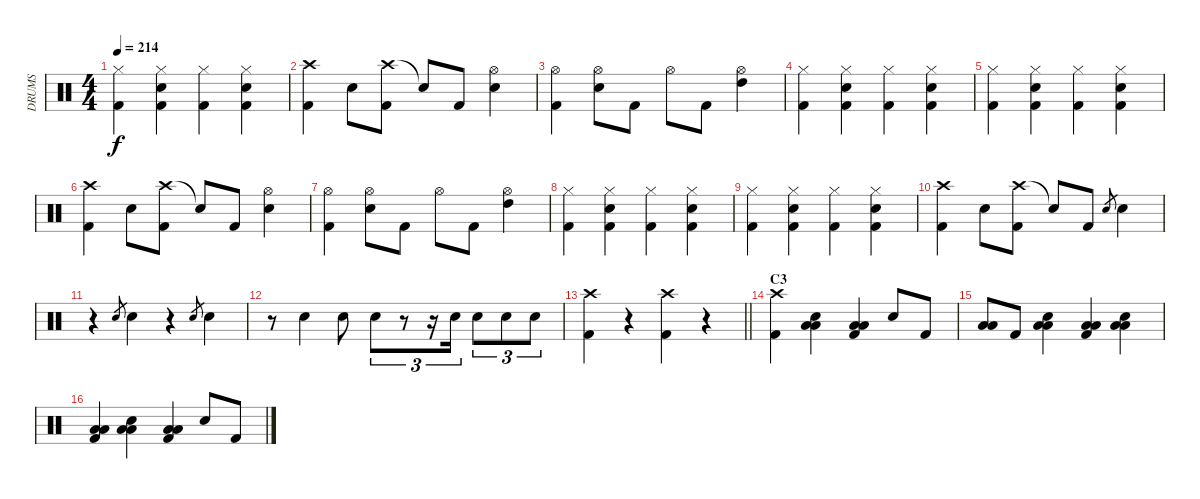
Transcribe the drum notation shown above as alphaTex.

\track ("DRUMS" "DRUMS") {instrument percussion}
\staff {score}
\articulation defaults
\ts (4 4)
\tempo 214
\clef neutral
\ks c
("Hi-Hat (closed)" "Kick (hit) 2").4{dy f} ("Hi-Hat (closed)" "Kick (hit) 2" "Snare (hit) 2").4 ("Hi-Hat (closed)" "Kick (hit) 2").4 ("Hi-Hat (closed)" "Kick (hit) 2" "Snare (hit) 2").4 |
("Crash high (hit)" "Kick (hit) 2").4 "Snare (hit) 2".8 ("Crash high (hit)" "Kick (hit) 2").8 "Snare (hit)"{t}.8 "Kick (hit) 2".8 ("Hi-Hat (open)" "Snare (hit) 2").4 |
("Hi-Hat (open)" "Kick (hit) 2").4 ("Hi-Hat (open)" "Snare (hit) 2").8 "Kick (hit) 2".8 "Hi-Hat (open)".8 "Kick (hit) 2".8 ("Hi-Hat (open)" "High Tom (hit)").4 |
("Hi-Hat (closed)" "Kick (hit) 2").4 ("Hi-Hat (closed)" "Kick (hit) 2" "Snare (hit) 2").4 ("Hi-Hat (closed)" "Kick (hit) 2").4 ("Hi-Hat (closed)" "Kick (hit) 2" "Snare (hit) 2").4 |
("Hi-Hat (closed)" "Kick (hit) 2").4 ("Hi-Hat (closed)" "Kick (hit) 2" "Snare (hit) 2").4 ("Hi-Hat (closed)" "Kick (hit) 2").4 ("Hi-Hat (closed)" "Kick (hit) 2" "Snare (hit) 2").4 |
("Crash high (hit)" "Kick (hit) 2").4 "Snare (hit) 2".8 ("Crash high (hit)" "Kick (hit) 2").8 "Snare (hit)"{t}.8 "Kick (hit) 2".8 ("Hi-Hat (open)" "Snare (hit) 2").4 |
("Hi-Hat (open)" "Kick (hit) 2").4 ("Hi-Hat (open)" "Snare (hit) 2").8 "Kick (hit) 2".8 "Hi-Hat (open)".8 "Kick (hit) 2".8 ("Hi-Hat (open)" "High Tom (hit)").4 |
("Hi-Hat (closed)" "Kick (hit) 2").4 ("Hi-Hat (closed)" "Kick (hit) 2" "Snare (hit) 2").4 ("Hi-Hat (closed)" "Kick (hit) 2").4 ("Hi-Hat (closed)" "Kick (hit) 2" "Snare (hit) 2").4 |
("Hi-Hat (closed)" "Kick (hit) 2").4 ("Hi-Hat (closed)" "Kick (hit) 2" "Snare (hit) 2").4 ("Hi-Hat (closed)" "Kick (hit) 2").4 ("Hi-Hat (closed)" "Kick (hit) 2" "Snare (hit) 2").4 |
("Crash high (hit)" "Kick (hit) 2").4 "Snare (hit) 2".8 ("Crash high (hit)" "Kick (hit) 2").8 "Snare (hit)"{t}.8 "Kick (hit) 2".8 "Snare (hit) 2".8{gr} "Snare (hit) 2".4 |
r.4 "Snare (hit) 2".8{gr} "Snare (hit) 2".4 r.4 "Snare (hit) 2".8{gr} "Snare (hit) 2".4 |
r.8 "Snare (hit) 2".4 "Snare (hit) 2".8 "Snare (hit) 2".8{tu (3 2)} r.8{tu (3 2)} r.16{tu (3 2)} "Snare (hit) 2".16{tu (3 2)} "Snare (hit) 2".8{tu (3 2)} "Snare (hit) 2".8{tu (3 2)} "Snare (hit) 2".8{tu (3 2)} |
\barLineRight lightlight
("Crash high (hit)" "Kick (hit) 2").4 r.4 ("Crash high (hit)" "Kick (hit) 2").4 r.4 |
\section ("" "C3")
("Crash high (hit)" "Kick (hit) 2").4 ("Snare (hit) 2" "Low Tom (hit)" "Low Tom (hit)").4 ("Kick (hit) 2" "Low Tom (hit)" "Low Tom (hit)").4 "Snare (hit) 2".8 "Kick (hit) 2".8 |
("Low Tom (hit)" "Low Tom (hit)").8 "Kick (hit) 2".8 ("Low Tom (hit)" "Snare (hit) 2" "Low Tom (hit)").4 ("Low Tom (hit)" "Kick (hit) 2" "Low Tom (hit)").4 ("Low Tom (hit)" "Snare (hit) 2" "Low Tom (hit)").4 |
("Low Tom (hit)" "Kick (hit) 2" "Low Tom (hit)").4 ("Low Tom (hit)" "Snare (hit) 2" "Low Tom (hit)").4 ("Low Tom (hit)" "Kick (hit) 2" "Low Tom (hit)").4 "Snare (hit) 2".8 "Kick (hit) 2".8
